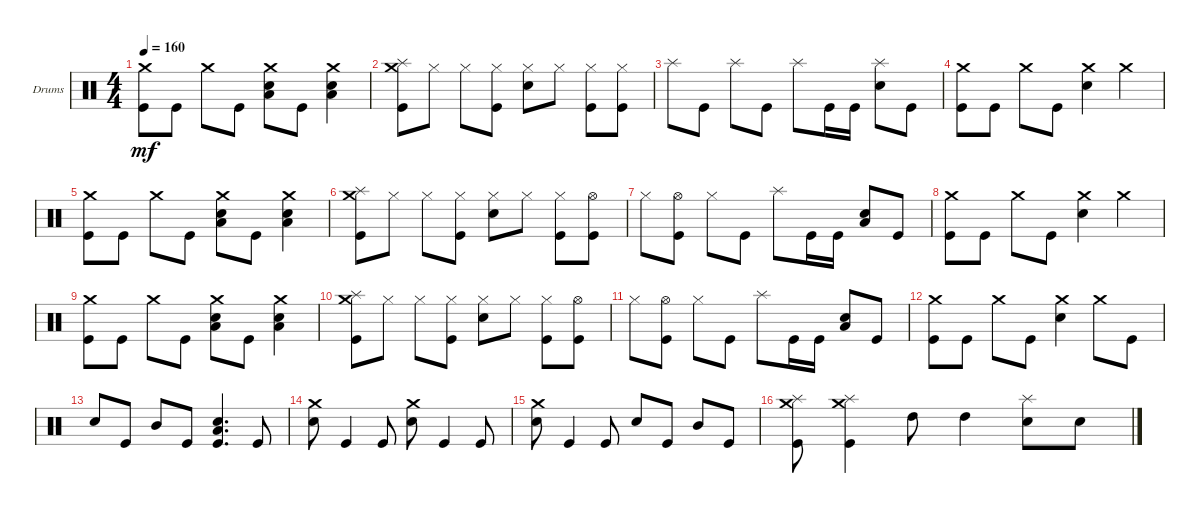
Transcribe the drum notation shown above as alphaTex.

\bracketExtendMode groupsimilarinstruments
\firstSystemTrackNameOrientation horizontal
\otherSystemsTrackNameOrientation horizontal
\track ("Drums" "Drums") {instrument percussion}
\staff {score}
\articulation defaults
\ts (4 4)
\tempo 160
\clef neutral
\ks c
("Kick (hit)" "Crash medium (hit)").8{dy mf} "Kick (hit)".8 "Crash medium (hit)".8 "Kick (hit)".8 ("Snare (hit) 2" "Low Tom (hit)" "Crash medium (hit)").8 "Kick (hit)".8 ("Snare (hit) 2" "Low Tom (hit)" "Crash medium (hit)").4 |
("Kick (hit)" "Splash (hit)" "Crash medium (hit)").8 "Hi-Hat (closed)".8 "Hi-Hat (closed)".8 ("Kick (hit)" "Hi-Hat (closed)").8 ("Snare (hit) 2" "Hi-Hat (closed)").8 "Hi-Hat (closed)".8 ("Kick (hit)" "Hi-Hat (closed)").8 ("Kick (hit)" "Hi-Hat (closed)").8 |
"Splash (hit)".8 "Kick (hit)".8 "Splash (hit)".8 "Kick (hit)".8 "Splash (hit)".8 "Kick (hit)".16 "Kick (hit)".16 ("Snare (hit) 2" "Splash (hit)").8 "Kick (hit)".8 |
("Kick (hit)" "Crash medium (hit)").8 "Kick (hit)".8 "Crash medium (hit)".8 "Kick (hit)".8 ("Snare (hit) 2" "Crash medium (hit)").4 "Crash medium (hit)".4 |
("Kick (hit)" "Crash medium (hit)").8 "Kick (hit)".8 "Crash medium (hit)".8 "Kick (hit)".8 ("Snare (hit) 2" "Low Tom (hit)" "Crash medium (hit)").8 "Kick (hit)".8 ("Snare (hit) 2" "Low Tom (hit)" "Crash medium (hit)").4 |
("Kick (hit)" "Splash (hit)" "Crash medium (hit)").8 "Hi-Hat (closed)".8 "Hi-Hat (closed)".8 ("Kick (hit)" "Hi-Hat (closed)").8 ("Snare (hit) 2" "Hi-Hat (closed)").8 "Hi-Hat (closed)".8 ("Kick (hit)" "Hi-Hat (closed)").8 ("Kick (hit)" "Hi-Hat (open)").8 |
"Hi-Hat (closed)".8 ("Kick (hit)" "Hi-Hat (open)").8 "Hi-Hat (closed)".8 "Kick (hit)".8 "Splash (hit)".8 "Kick (hit)".16 "Kick (hit)".16 ("Snare (hit) 2" "Low Tom (hit)").8 "Kick (hit)".8 |
("Kick (hit)" "Crash medium (hit)").8 "Kick (hit)".8 "Crash medium (hit)".8 "Kick (hit)".8 ("Snare (hit) 2" "Crash medium (hit)").4 "Crash medium (hit)".4 |
("Kick (hit)" "Crash medium (hit)").8 "Kick (hit)".8 "Crash medium (hit)".8 "Kick (hit)".8 ("Snare (hit) 2" "Low Tom (hit)" "Crash medium (hit)").8 "Kick (hit)".8 ("Snare (hit) 2" "Low Tom (hit)" "Crash medium (hit)").4 |
("Kick (hit)" "Splash (hit)" "Crash medium (hit)").8 "Hi-Hat (closed)".8 "Hi-Hat (closed)".8 ("Kick (hit)" "Hi-Hat (closed)").8 ("Snare (hit) 2" "Hi-Hat (closed)").8 "Hi-Hat (closed)".8 ("Kick (hit)" "Hi-Hat (closed)").8 ("Kick (hit)" "Hi-Hat (open)").8 |
"Hi-Hat (closed)".8 ("Kick (hit)" "Hi-Hat (open)").8 "Hi-Hat (closed)".8 "Kick (hit)".8 "Splash (hit)".8 "Kick (hit)".16 "Kick (hit)".16 ("Snare (hit) 2" "Low Tom (hit)").8 "Kick (hit)".8 |
("Kick (hit)" "Crash medium (hit)").8 "Kick (hit)".8 "Crash medium (hit)".8 "Kick (hit)".8 ("Snare (hit) 2" "Crash medium (hit)").4 "Crash medium (hit)".8 "Kick (hit)".8 |
"Snare (hit) 2".8 "Kick (hit)".8 "Mid Tom (hit)".8 "Kick (hit)".8 ("Kick (hit)" "Snare (hit) 2" "Low Tom (hit)").4{d} "Kick (hit)".8 |
("Snare (hit) 2" "Crash medium (hit)").8 "Kick (hit)".4 "Kick (hit)".8 ("Snare (hit) 2" "Crash medium (hit)").8 "Kick (hit)".4 "Kick (hit)".8 |
("Snare (hit) 2" "Crash medium (hit)").8 "Kick (hit)".4 "Kick (hit)".8 "Snare (hit) 2".8 "Kick (hit)".8 "Mid Tom (hit)".8 "Kick (hit)".8 |
("Kick (hit)" "Splash (hit)" "Crash medium (hit)").8 ("Kick (hit)" "Splash (hit)" "Crash medium (hit)").4 "High Tom (hit)".8 "High Tom (hit)".4 ("Snare (hit) 2" "Splash (hit)").8 "Snare (hit) 2".8
